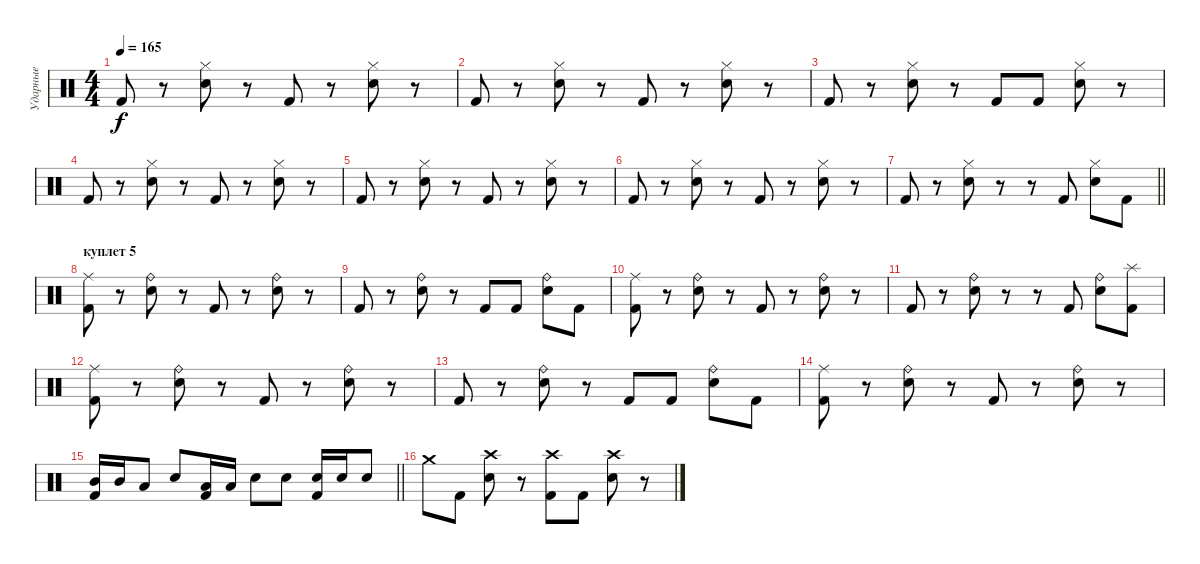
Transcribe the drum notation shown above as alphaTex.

\track ("Ударные" "Ударные") {instrument percussion}
\staff {score}
\articulation defaults
\ts (4 4)
\tempo 165
\clef neutral
\ks c "Kick (hit) 2".8{dy f}
r.8 ("Hi-Hat (closed)" "Snare (hit) 2").8 r.8 "Kick (hit) 2".8 r.8 ("Hi-Hat (closed)" "Snare (hit) 2").8 r.8 |
"Kick (hit) 2".8 r.8 ("Hi-Hat (closed)" "Snare (hit) 2").8 r.8 "Kick (hit) 2".8 r.8 ("Hi-Hat (closed)" "Snare (hit) 2").8 r.8 |
"Kick (hit) 2".8 r.8 ("Hi-Hat (closed)" "Snare (hit) 2").8 r.8 "Kick (hit) 2".8 "Kick (hit) 2".8 ("Hi-Hat (closed)" "Snare (hit) 2").8 r.8 |
"Kick (hit) 2".8 r.8 ("Hi-Hat (closed)" "Snare (hit) 2").8 r.8 "Kick (hit) 2".8 r.8 ("Hi-Hat (closed)" "Snare (hit) 2").8 r.8 |
"Kick (hit) 2".8 r.8 ("Hi-Hat (closed)" "Snare (hit) 2").8 r.8 "Kick (hit) 2".8 r.8 ("Hi-Hat (closed)" "Snare (hit) 2").8 r.8 |
"Kick (hit) 2".8 r.8 ("Hi-Hat (closed)" "Snare (hit) 2").8 r.8 "Kick (hit) 2".8 r.8 ("Hi-Hat (closed)" "Snare (hit) 2").8 r.8 |
\barLineRight lightlight "Kick (hit) 2".8
r.8 ("Hi-Hat (closed)" "Snare (hit) 2").8 r.8 r.8 "Kick (hit) 2".8 ("Hi-Hat (closed)" "Snare (hit) 2").8 "Kick (hit) 2".8 |
\section ("" "куплет 5")
("Ride (middle)" "Kick (hit) 2").8 r.8 ("Ride (bell)" "Snare (hit) 2").8 r.8 "Kick (hit) 2".8 r.8 ("Ride (bell)" "Snare (hit) 2").8 r.8 |
"Kick (hit) 2".8 r.8 ("Ride (bell)" "Snare (hit) 2").8 r.8 "Kick (hit) 2".8 "Kick (hit) 2".8 ("Ride (bell)" "Snare (hit) 2").8 "Kick (hit) 2".8 |
("Ride (middle)" "Kick (hit) 2").8 r.8 ("Ride (bell)" "Snare (hit) 2").8 r.8 "Kick (hit) 2".8 r.8 ("Ride (bell)" "Snare (hit) 2").8 r.8 |
"Kick (hit) 2".8 r.8 ("Ride (bell)" "Snare (hit) 2").8 r.8 r.8 "Kick (hit) 2".8 ("Ride (bell)" "Snare (hit) 2").8 ("Splash (hit)" "Kick (hit) 2").8 |
("Ride (middle)" "Kick (hit) 2").8 r.8 ("Ride (bell)" "Snare (hit) 2").8 r.8 "Kick (hit) 2".8 r.8 ("Ride (bell)" "Snare (hit) 2").8 r.8 |
"Kick (hit) 2".8 r.8 ("Ride (bell)" "Snare (hit) 2").8 r.8 "Kick (hit) 2".8 "Kick (hit) 2".8 ("Ride (bell)" "Snare (hit) 2").8 "Kick (hit) 2".8 |
("Ride (middle)" "Kick (hit) 2").8 r.8 ("Ride (bell)" "Snare (hit) 2").8 r.8 "Kick (hit) 2".8 r.8 ("Ride (bell)" "Snare (hit) 2").8 r.8 |
\barLineRight lightlight
("Mid Tom (hit)" "Kick (hit) 2").16 "Mid Tom (hit)".16 "Low Tom (hit)".8 "Snare (hit) 2".8 ("Low Tom (hit)" "Kick (hit) 2").16 "Low Tom (hit)".16 "Snare (hit) 2".8 "Snare (hit) 2".8 ("Snare (hit) 2" "Kick (hit) 2").16 "Snare (hit) 2".16 "Snare (hit) 2".8 |
"Crash medium (hit)".8 "Kick (hit) 2".8 ("Crash high (hit)" "Snare (hit) 2").8 r.8 ("Crash high (hit)" "Kick (hit) 2").8 "Kick (hit) 2".8 ("Crash high (hit)" "Snare (hit) 2").8 r.8
